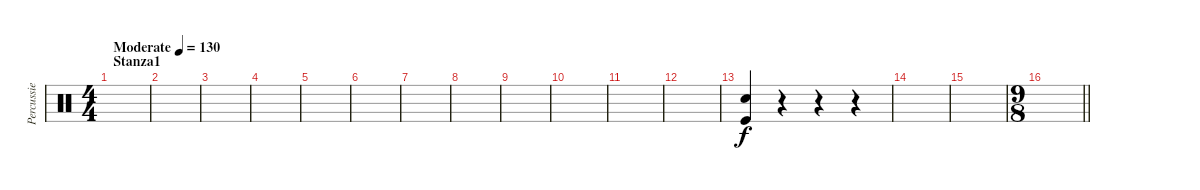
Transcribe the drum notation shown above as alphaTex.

\track ("Percussie" "Percussie") {instrument percussion}
\staff {score}
\articulation defaults
\ts (4 4)
\section ("" "Stanza1")
\tempo (130 "Moderate")
\clef neutral
\ks c
|
|
|
|
|
|
|
|
|
|
|
|
("Snare (hit) 2" "Kick (hit)").4 r.4 r.4 r.4 |
|
|
\ts (9 8)
\barLineRight lightlight
